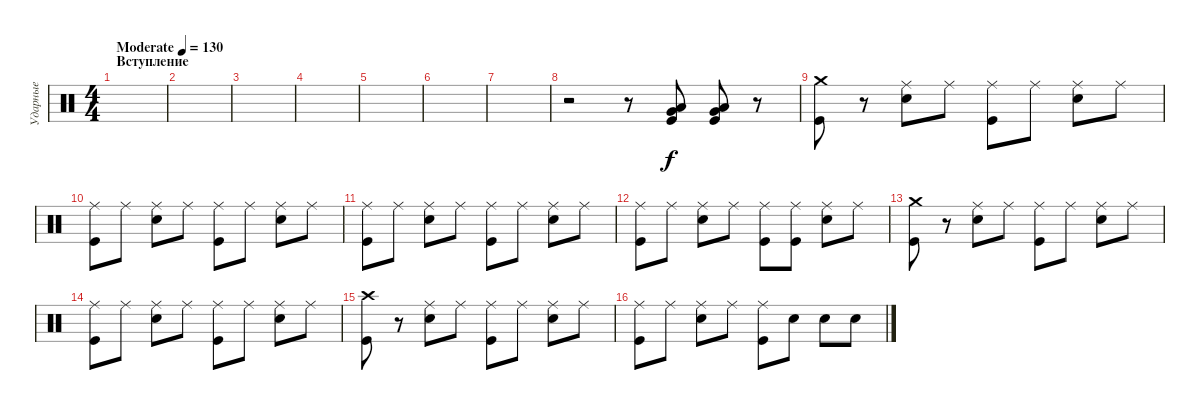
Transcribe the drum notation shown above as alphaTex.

\track ("Ударные" "Ударные") {instrument percussion}
\staff {score}
\articulation defaults
\ts (4 4)
\section ("" "Вступление")
\tempo (130 "Moderate")
\clef neutral
\ks c
|
|
|
|
|
|
|
r.2 r.8 ("Kick (hit)" "Low Tom (hit)" "Very Low Tom (hit)").8 ("Kick (hit)" "Low Tom (hit)" "Very Low Tom (hit)").8 r.8 |
("Kick (hit)" "Crash medium (hit)").8 r.8 ("Snare (hit) 2" "Ride (middle)").8 "Ride (middle)".8 ("Kick (hit)" "Ride (middle)").8 "Ride (middle)".8 ("Snare (hit) 2" "Ride (middle)").8 "Ride (middle)".8 |
("Kick (hit)" "Ride (middle)").8 "Ride (middle)".8 ("Snare (hit) 2" "Ride (middle)").8 "Ride (middle)".8 ("Kick (hit)" "Ride (middle)").8 "Ride (middle)".8 ("Snare (hit) 2" "Ride (middle)").8 "Ride (middle)".8 |
("Kick (hit)" "Ride (middle)").8 "Ride (middle)".8 ("Snare (hit) 2" "Ride (middle)").8 "Ride (middle)".8 ("Kick (hit)" "Ride (middle)").8 "Ride (middle)".8 ("Snare (hit) 2" "Ride (middle)").8 "Ride (middle)".8 |
("Kick (hit)" "Ride (middle)").8 "Ride (middle)".8 ("Snare (hit) 2" "Ride (middle)").8 "Ride (middle)".8 ("Kick (hit)" "Ride (middle)").8 ("Kick (hit)" "Ride (middle)").8 ("Snare (hit) 2" "Ride (middle)").8 "Ride (middle)".8 |
("Kick (hit)" "Crash medium (hit)").8 r.8 ("Snare (hit) 2" "Ride (middle)").8 "Ride (middle)".8 ("Kick (hit)" "Ride (middle)").8 "Ride (middle)".8 ("Snare (hit) 2" "Ride (middle)").8 "Ride (middle)".8 |
("Kick (hit)" "Ride (middle)").8 "Ride (middle)".8 ("Snare (hit) 2" "Ride (middle)").8 "Ride (middle)".8 ("Kick (hit)" "Ride (middle)").8 "Ride (middle)".8 ("Snare (hit) 2" "Ride (middle)").8 "Ride (middle)".8 |
("Kick (hit)" "Crash high (hit)").8 r.8 ("Snare (hit) 2" "Ride (middle)").8 "Ride (middle)".8 ("Kick (hit)" "Ride (middle)").8 "Ride (middle)".8 ("Snare (hit) 2" "Ride (middle)").8 "Ride (middle)".8 |
("Kick (hit)" "Ride (middle)").8 "Ride (middle)".8 ("Snare (hit) 2" "Ride (middle)").8 "Ride (middle)".8 ("Kick (hit)" "Ride (middle)").8 "Snare (hit) 2".8 "Snare (hit) 2".8 "Snare (hit) 2".8
